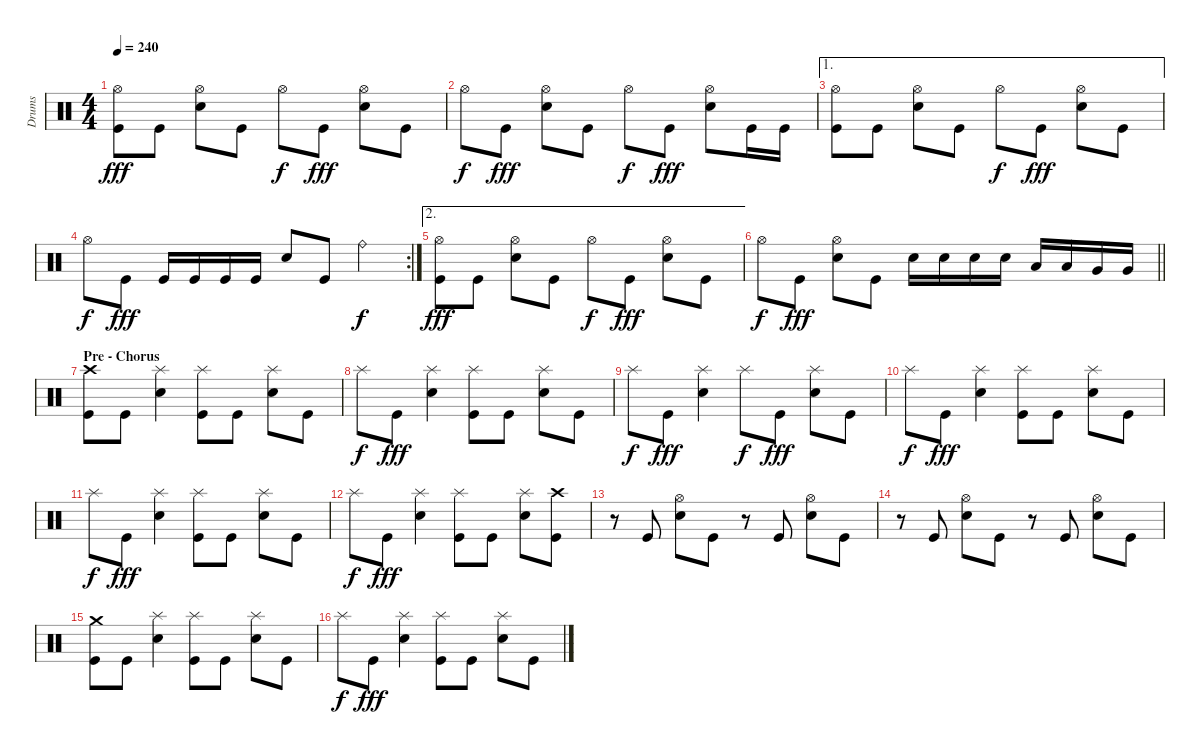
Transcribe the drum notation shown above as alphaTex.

\track ("Drums" "Drums") {instrument percussion}
\staff {score}
\articulation defaults
\ts (4 4)
\tempo 240
\clef neutral
\ks c
("Kick (hit)" "Hi-Hat (open)").8{dy fff} "Kick (hit)".8 ("Electric Snare (hit)" "Hi-Hat (open)").8 "Kick (hit)".8 "Hi-Hat (open)".8{dy f} "Kick (hit)".8{dy fff} ("Electric Snare (hit)" "Hi-Hat (open)").8 "Kick (hit)".8 |
"Hi-Hat (open)".8{dy f} "Kick (hit)".8{dy fff} ("Electric Snare (hit)" "Hi-Hat (open)").8 "Kick (hit)".8 "Hi-Hat (open)".8{dy f} "Kick (hit)".8{dy fff} ("Electric Snare (hit)" "Hi-Hat (open)").8 "Kick (hit)".16 "Kick (hit)".16 |
\ae 1
("Kick (hit)" "Hi-Hat (open)").8 "Kick (hit)".8 ("Electric Snare (hit)" "Hi-Hat (open)").8 "Kick (hit)".8 "Hi-Hat (open)".8{dy f} "Kick (hit)".8{dy fff} ("Electric Snare (hit)" "Hi-Hat (open)").8 "Kick (hit)".8 |
\rc 2 "Hi-Hat (open)".8{dy f} "Kick (hit)".8{dy fff} "Kick (hit)".16 "Kick (hit)".16 "Kick (hit)".16 "Kick (hit)".16 "Electric Snare (hit)".8 "Kick (hit)".8 "Ride (bell)".4{dy f}
|
\ae 2
("Kick (hit)" "Hi-Hat (open)").8{dy fff} "Kick (hit)".8 ("Electric Snare (hit)" "Hi-Hat (open)").8 "Kick (hit)".8 "Hi-Hat (open)".8{dy f} "Kick (hit)".8{dy fff} ("Electric Snare (hit)" "Hi-Hat (open)").8 "Kick (hit)".8 |
\barLineRight lightlight "Hi-Hat (open)".8{dy f} "Kick (hit)".8{dy fff}
("Electric Snare (hit)" "Hi-Hat (open)").8 "Kick (hit)".8 "Electric Snare (hit)".16 "Electric Snare (hit)".16 "Electric Snare (hit)".16 "Electric Snare (hit)".16 "Low Tom (hit)".16 "Low Tom (hit)".16 "Very Low Tom (hit)".16 "Very Low Tom (hit)".16 |
\section ("" "Pre - Chorus")
("Kick (hit)" "Crash high (hit)").8 "Kick (hit)".8 ("Electric Snare (hit)" "Splash (hit)").4 ("Kick (hit)" "Splash (hit)").8 "Kick (hit)".8 ("Electric Snare (hit)" "Splash (hit)").8 "Kick (hit)".8 |
"Splash (hit)".8{dy f} "Kick (hit)".8{dy fff} ("Electric Snare (hit)" "Splash (hit)").4 ("Kick (hit)" "Splash (hit)").8 "Kick (hit)".8 ("Electric Snare (hit)" "Splash (hit)").8 "Kick (hit)".8 |
"Splash (hit)".8{dy f} "Kick (hit)".8{dy fff} ("Electric Snare (hit)" "Splash (hit)").4 "Splash (hit)".8{dy f} "Kick (hit)".8{dy fff} ("Electric Snare (hit)" "Splash (hit)").8 "Kick (hit)".8 |
"Splash (hit)".8{dy f} "Kick (hit)".8{dy fff} ("Electric Snare (hit)" "Splash (hit)").4 ("Kick (hit)" "Splash (hit)").8 "Kick (hit)".8 ("Electric Snare (hit)" "Splash (hit)").8 "Kick (hit)".8 |
"Splash (hit)".8{dy f} "Kick (hit)".8{dy fff} ("Electric Snare (hit)" "Splash (hit)").4 ("Kick (hit)" "Splash (hit)").8 "Kick (hit)".8 ("Electric Snare (hit)" "Splash (hit)").8 "Kick (hit)".8 |
"Splash (hit)".8{dy f} "Kick (hit)".8{dy fff} ("Electric Snare (hit)" "Splash (hit)").4 ("Kick (hit)" "Splash (hit)").8 "Kick (hit)".8 ("Electric Snare (hit)" "Splash (hit)").8 ("Kick (hit)" "Crash high (hit)").8 |
r.8 "Kick (hit)".8 ("Electric Snare (hit)" "Hi-Hat (open)").8 "Kick (hit)".8 r.8 "Kick (hit)".8 ("Electric Snare (hit)" "Hi-Hat (open)").8 "Kick (hit)".8 |
r.8 "Kick (hit)".8 ("Electric Snare (hit)" "Hi-Hat (open)").8 "Kick (hit)".8 r.8 "Kick (hit)".8 ("Electric Snare (hit)" "Hi-Hat (open)").8 "Kick (hit)".8 |
("Kick (hit)" "Crash medium (hit)").8 "Kick (hit)".8 ("Electric Snare (hit)" "Splash (hit)").4 ("Kick (hit)" "Splash (hit)").8 "Kick (hit)".8 ("Electric Snare (hit)" "Splash (hit)").8 "Kick (hit)".8 |
"Splash (hit)".8{dy f} "Kick (hit)".8{dy fff} ("Electric Snare (hit)" "Splash (hit)").4 ("Kick (hit)" "Splash (hit)").8 "Kick (hit)".8 ("Electric Snare (hit)" "Splash (hit)").8 "Kick (hit)".8
